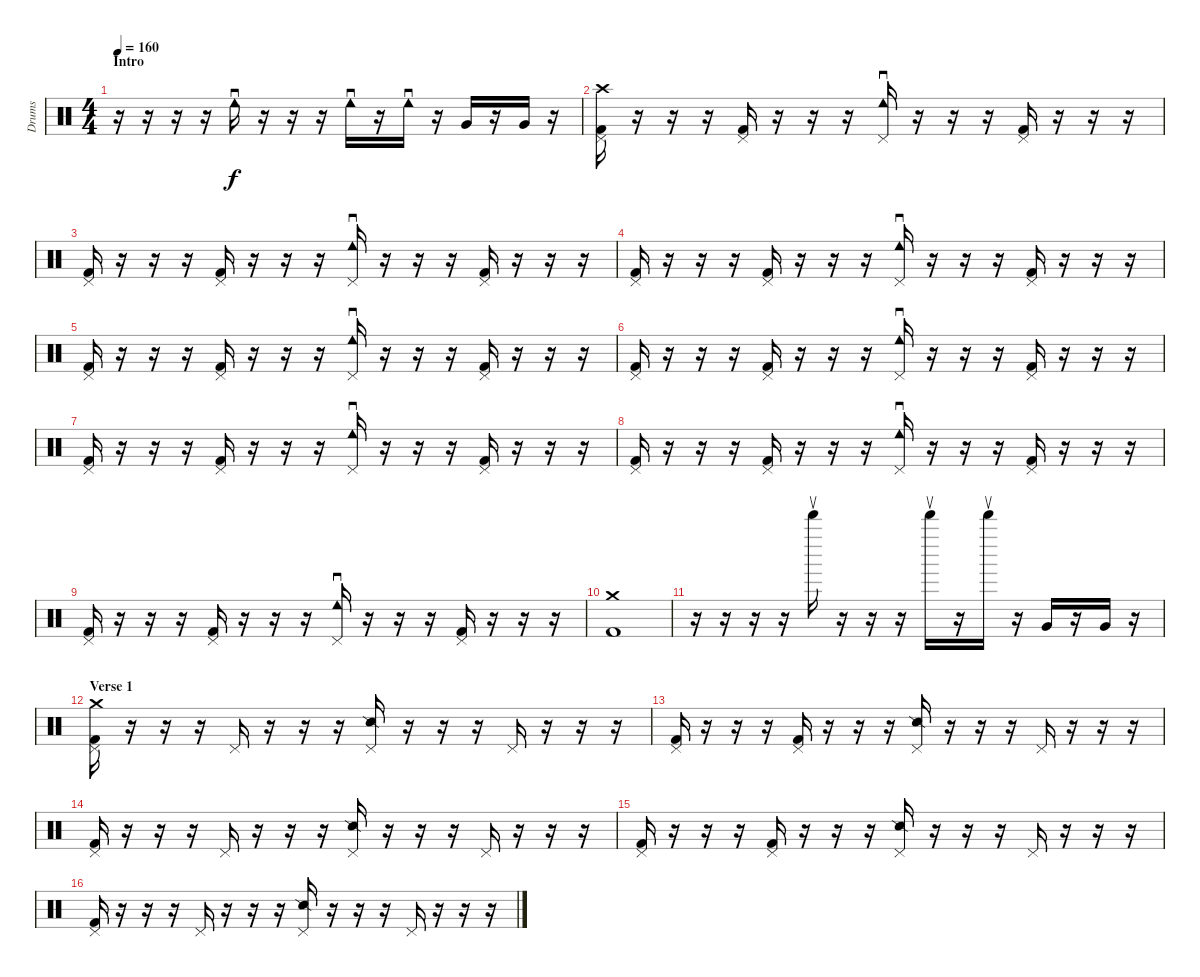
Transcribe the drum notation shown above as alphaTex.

\track ("Drums" "Drums") {instrument percussion}
\staff {score}
\articulation defaults
\ts (4 4)
\section ("" "Intro")
\tempo 160
\clef neutral
\ks c
r.16{dy f} r.16 r.16 r.16 "Tambourine (roll)".16 r.16 r.16 r.16 "Tambourine (roll)".16 r.16 "Tambourine (roll)".16 r.16 "Very Low Tom (hit)".16 r.16 "Very Low Tom (hit)".16 r.16 |
("Crash high (hit)" "Pedal Hi-Hat (hit)" "Kick (hit) 2").16 r.16 r.16 r.16 ("Pedal Hi-Hat (hit)" "Kick (hit) 2").16 r.16 r.16 r.16 ("Pedal Hi-Hat (hit)" "Tambourine (roll)").16 r.16 r.16 r.16 ("Pedal Hi-Hat (hit)" "Kick (hit) 2").16 r.16 r.16 r.16 |
("Pedal Hi-Hat (hit)" "Kick (hit) 2").16 r.16 r.16 r.16 ("Pedal Hi-Hat (hit)" "Kick (hit) 2").16 r.16 r.16 r.16 ("Pedal Hi-Hat (hit)" "Tambourine (roll)").16 r.16 r.16 r.16 ("Pedal Hi-Hat (hit)" "Kick (hit) 2").16 r.16 r.16 r.16 |
("Pedal Hi-Hat (hit)" "Kick (hit) 2").16 r.16 r.16 r.16 ("Pedal Hi-Hat (hit)" "Kick (hit) 2").16 r.16 r.16 r.16 ("Pedal Hi-Hat (hit)" "Tambourine (roll)").16 r.16 r.16 r.16 ("Pedal Hi-Hat (hit)" "Kick (hit) 2").16 r.16 r.16 r.16 |
("Pedal Hi-Hat (hit)" "Kick (hit) 2").16 r.16 r.16 r.16 ("Pedal Hi-Hat (hit)" "Kick (hit) 2").16 r.16 r.16 r.16 ("Pedal Hi-Hat (hit)" "Tambourine (roll)").16 r.16 r.16 r.16 ("Pedal Hi-Hat (hit)" "Kick (hit) 2").16 r.16 r.16 r.16 |
("Pedal Hi-Hat (hit)" "Kick (hit) 2").16 r.16 r.16 r.16 ("Pedal Hi-Hat (hit)" "Kick (hit) 2").16 r.16 r.16 r.16 ("Pedal Hi-Hat (hit)" "Tambourine (roll)").16 r.16 r.16 r.16 ("Pedal Hi-Hat (hit)" "Kick (hit) 2").16 r.16 r.16 r.16 |
("Pedal Hi-Hat (hit)" "Kick (hit) 2").16 r.16 r.16 r.16 ("Pedal Hi-Hat (hit)" "Kick (hit) 2").16 r.16 r.16 r.16 ("Pedal Hi-Hat (hit)" "Tambourine (roll)").16 r.16 r.16 r.16 ("Pedal Hi-Hat (hit)" "Kick (hit) 2").16 r.16 r.16 r.16 |
("Pedal Hi-Hat (hit)" "Kick (hit) 2").16 r.16 r.16 r.16 ("Pedal Hi-Hat (hit)" "Kick (hit) 2").16 r.16 r.16 r.16 ("Pedal Hi-Hat (hit)" "Tambourine (roll)").16 r.16 r.16 r.16 ("Pedal Hi-Hat (hit)" "Kick (hit) 2").16 r.16 r.16 r.16 |
("Pedal Hi-Hat (hit)" "Kick (hit) 2").16 r.16 r.16 r.16 ("Pedal Hi-Hat (hit)" "Kick (hit) 2").16 r.16 r.16 r.16 ("Pedal Hi-Hat (hit)" "Tambourine (roll)").16 r.16 r.16 r.16 ("Pedal Hi-Hat (hit)" "Kick (hit) 2").16 r.16 r.16 r.16 |
("Crash medium (hit)" "Kick (hit) 2").1 |
r.16 r.16 r.16 r.16 "Bell Tee (return)".16 r.16 r.16 r.16 "Bell Tee (return)".16 r.16 "Bell Tee (return)".16 r.16 "Very Low Tom (hit)".16 r.16 "Very Low Tom (hit)".16 r.16 |
\section ("" "Verse 1")
("Crash medium (hit)" "Pedal Hi-Hat (hit)" "Kick (hit) 2").16 r.16 r.16 r.16 "Pedal Hi-Hat (hit)".16 r.16 r.16 r.16 ("Pedal Hi-Hat (hit)" "Snare (side stick) 2").16 r.16 r.16 r.16 "Pedal Hi-Hat (hit)".16 r.16 r.16 r.16 |
("Pedal Hi-Hat (hit)" "Kick (hit) 2").16 r.16 r.16 r.16 ("Pedal Hi-Hat (hit)" "Kick (hit) 2").16 r.16 r.16 r.16 ("Pedal Hi-Hat (hit)" "Snare (side stick) 2").16 r.16 r.16 r.16 "Pedal Hi-Hat (hit)".16 r.16 r.16 r.16 |
("Pedal Hi-Hat (hit)" "Kick (hit) 2").16 r.16 r.16 r.16 "Pedal Hi-Hat (hit)".16 r.16 r.16 r.16 ("Pedal Hi-Hat (hit)" "Snare (side stick) 2").16 r.16 r.16 r.16 "Pedal Hi-Hat (hit)".16 r.16 r.16 r.16 |
("Pedal Hi-Hat (hit)" "Kick (hit) 2").16 r.16 r.16 r.16 ("Pedal Hi-Hat (hit)" "Kick (hit) 2").16 r.16 r.16 r.16 ("Pedal Hi-Hat (hit)" "Snare (side stick) 2").16 r.16 r.16 r.16 "Pedal Hi-Hat (hit)".16 r.16 r.16 r.16 |
("Pedal Hi-Hat (hit)" "Kick (hit) 2").16 r.16 r.16 r.16 "Pedal Hi-Hat (hit)".16 r.16 r.16 r.16 ("Pedal Hi-Hat (hit)" "Snare (side stick) 2").16 r.16 r.16 r.16 "Pedal Hi-Hat (hit)".16 r.16 r.16 r.16
